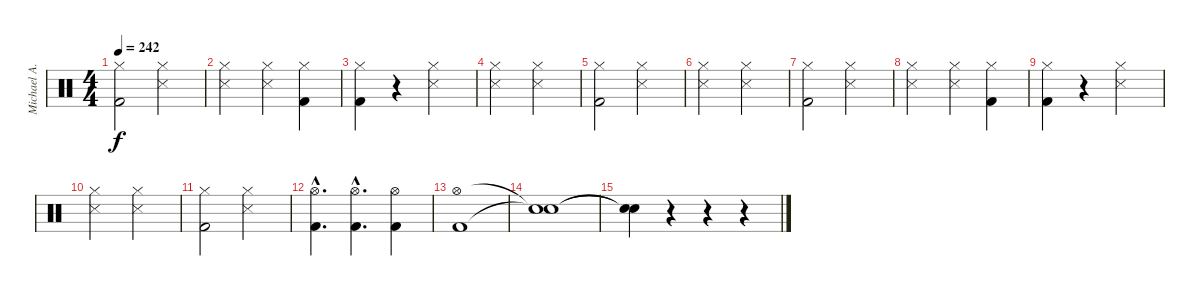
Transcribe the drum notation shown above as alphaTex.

\track ("Michael A." "Michael A.") {instrument percussion}
\staff {score}
\articulation defaults
\ts (4 4)
\tempo 242
\clef neutral
\ks c
("Hi-Hat (closed)" "Kick (hit) 2").2{dy f} ("Hi-Hat (closed)" "Snare (side stick) 3").2 |
("Hi-Hat (closed)" "Snare (side stick) 3").2 ("Hi-Hat (closed)" "Snare (side stick) 3").4 ("Hi-Hat (closed)" "Kick (hit) 2").4 |
("Hi-Hat (closed)" "Kick (hit) 2").4 r.4 ("Hi-Hat (closed)" "Snare (side stick) 3").2 |
("Hi-Hat (closed)" "Snare (side stick) 3").2 ("Hi-Hat (closed)" "Snare (side stick) 3").2 |
("Hi-Hat (closed)" "Kick (hit) 2").2 ("Hi-Hat (closed)" "Snare (side stick) 3").2 |
("Hi-Hat (closed)" "Snare (side stick) 3").2 ("Hi-Hat (closed)" "Snare (side stick) 3").2 |
("Hi-Hat (closed)" "Kick (hit) 2").2 ("Hi-Hat (closed)" "Snare (side stick) 3").2 |
("Hi-Hat (closed)" "Snare (side stick) 3").2 ("Hi-Hat (closed)" "Snare (side stick) 3").4 ("Hi-Hat (closed)" "Kick (hit) 2").4 |
("Hi-Hat (closed)" "Kick (hit) 2").4 r.4 ("Hi-Hat (closed)" "Snare (side stick) 3").2 |
("Hi-Hat (closed)" "Snare (side stick) 3").2 ("Hi-Hat (closed)" "Snare (side stick) 3").2 |
("Hi-Hat (closed)" "Kick (hit) 2").2 ("Hi-Hat (closed)" "Snare (side stick) 3").2 |
("Hi-Hat (open)"{hac} "Kick (hit) 2"{hac}).4{d} ("Hi-Hat (open)"{hac} "Kick (hit) 2"{hac}).4{d} ("Hi-Hat (open)" "Kick (hit) 2").4 |
("Hi-Hat (open)" "Kick (hit) 2").1 |
("Snare (hit)"{t} "Snare (hit)"{t}).1 |
("Snare (hit)"{t} "Snare (hit)"{t}).4 r.4 r.4 r.4
